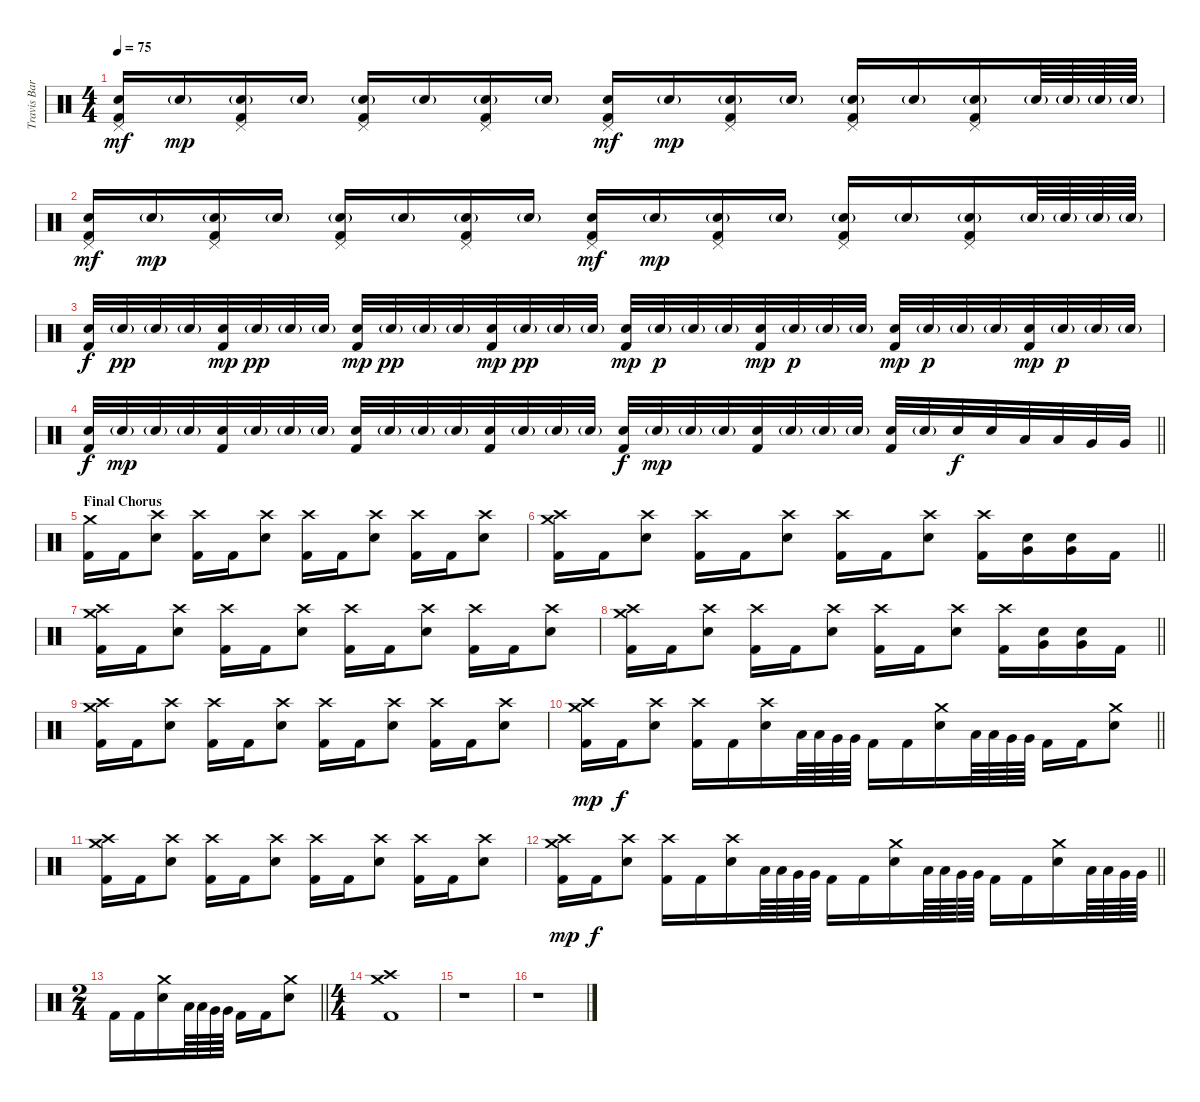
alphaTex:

\track ("Travis Barker" "Travis Bar") {instrument percussion}
\staff {score}
\articulation defaults
\ts (4 4)
\tempo 75
\clef neutral
\ks c
("Pedal Hi-Hat (hit)" "Electric Snare (hit)" "Kick (hit) 2").16{dy mf} "Electric Snare (hit)"{g}.16{dy mp} ("Pedal Hi-Hat (hit)" "Electric Snare (hit)"{g} "Kick (hit) 2").16 "Electric Snare (hit)"{g}.16 ("Pedal Hi-Hat (hit)" "Electric Snare (hit)"{g} "Kick (hit) 2").16 "Electric Snare (hit)"{g}.16 ("Pedal Hi-Hat (hit)" "Electric Snare (hit)"{g} "Kick (hit) 2").16 "Electric Snare (hit)"{g}.16 ("Pedal Hi-Hat (hit)" "Electric Snare (hit)" "Kick (hit) 2").16{dy mf} "Electric Snare (hit)"{g}.16{dy mp} ("Pedal Hi-Hat (hit)" "Electric Snare (hit)"{g} "Kick (hit) 2").16 "Electric Snare (hit)"{g}.16 ("Pedal Hi-Hat (hit)" "Electric Snare (hit)"{g} "Kick (hit) 2").16 "Electric Snare (hit)"{g}.16 ("Pedal Hi-Hat (hit)" "Electric Snare (hit)"{g} "Kick (hit) 2").16 "Electric Snare (hit)"{g}.64 "Electric Snare (hit)"{g}.64 "Electric Snare (hit)"{g}.64 "Electric Snare (hit)"{g}.64 |
("Pedal Hi-Hat (hit)" "Electric Snare (hit)" "Kick (hit) 2").16{dy mf} "Electric Snare (hit)"{g}.16{dy mp} ("Pedal Hi-Hat (hit)" "Electric Snare (hit)"{g} "Kick (hit) 2").16 "Electric Snare (hit)"{g}.16 ("Pedal Hi-Hat (hit)" "Electric Snare (hit)"{g} "Kick (hit) 2").16 "Electric Snare (hit)"{g}.16 ("Pedal Hi-Hat (hit)" "Electric Snare (hit)"{g} "Kick (hit) 2").16 "Electric Snare (hit)"{g}.16 ("Pedal Hi-Hat (hit)" "Electric Snare (hit)" "Kick (hit) 2").16{dy mf} "Electric Snare (hit)"{g}.16{dy mp} ("Pedal Hi-Hat (hit)" "Electric Snare (hit)"{g} "Kick (hit) 2").16 "Electric Snare (hit)"{g}.16 ("Pedal Hi-Hat (hit)" "Electric Snare (hit)"{g} "Kick (hit) 2").16 "Electric Snare (hit)"{g}.16 ("Pedal Hi-Hat (hit)" "Electric Snare (hit)"{g} "Kick (hit) 2").16 "Electric Snare (hit)"{g}.64 "Electric Snare (hit)"{g}.64 "Electric Snare (hit)"{g}.64 "Electric Snare (hit)"{g}.64 |
("Electric Snare (hit)" "Kick (hit) 2").32{dy f} "Electric Snare (hit)"{g}.32{dy pp} "Electric Snare (hit)"{g}.32 "Electric Snare (hit)"{g}.32 ("Electric Snare (hit)" "Kick (hit) 2").32{dy mp} "Electric Snare (hit)"{g}.32{dy pp} "Electric Snare (hit)"{g}.32 "Electric Snare (hit)"{g}.32 ("Electric Snare (hit)" "Kick (hit) 2").32{dy mp} "Electric Snare (hit)"{g}.32{dy pp} "Electric Snare (hit)"{g}.32 "Electric Snare (hit)"{g}.32 ("Electric Snare (hit)" "Kick (hit) 2").32{dy mp} "Electric Snare (hit)"{g}.32{dy pp} "Electric Snare (hit)"{g}.32 "Electric Snare (hit)"{g}.32 ("Electric Snare (hit)" "Kick (hit) 2").32{dy mp} "Electric Snare (hit)"{g}.32{dy p} "Electric Snare (hit)"{g}.32 "Electric Snare (hit)"{g}.32 ("Electric Snare (hit)" "Kick (hit) 2").32{dy mp} "Electric Snare (hit)"{g}.32{dy p} "Electric Snare (hit)"{g}.32 "Electric Snare (hit)"{g}.32 ("Electric Snare (hit)" "Kick (hit) 2").32{dy mp} "Electric Snare (hit)"{g}.32{dy p} "Electric Snare (hit)"{g}.32 "Electric Snare (hit)"{g}.32 ("Electric Snare (hit)" "Kick (hit) 2").32{dy mp} "Electric Snare (hit)"{g}.32{dy p} "Electric Snare (hit)"{g}.32 "Electric Snare (hit)"{g}.32 |
\barLineRight lightlight
("Electric Snare (hit)" "Kick (hit) 2").32{dy f} "Electric Snare (hit)"{g}.32{dy mp} "Electric Snare (hit)"{g}.32 "Electric Snare (hit)"{g}.32 ("Electric Snare (hit)" "Kick (hit) 2").32 "Electric Snare (hit)"{g}.32 "Electric Snare (hit)"{g}.32 "Electric Snare (hit)"{g}.32 ("Electric Snare (hit)" "Kick (hit) 2").32 "Electric Snare (hit)"{g}.32 "Electric Snare (hit)"{g}.32 "Electric Snare (hit)"{g}.32 ("Electric Snare (hit)" "Kick (hit) 2").32 "Electric Snare (hit)"{g}.32 "Electric Snare (hit)"{g}.32 "Electric Snare (hit)"{g}.32 ("Electric Snare (hit)" "Kick (hit) 2").32{dy f} "Electric Snare (hit)"{g}.32{dy mp} "Electric Snare (hit)"{g}.32 "Electric Snare (hit)"{g}.32 ("Electric Snare (hit)" "Kick (hit) 2").32 "Electric Snare (hit)"{g}.32 "Electric Snare (hit)"{g}.32 "Electric Snare (hit)"{g}.32 ("Electric Snare (hit)" "Kick (hit) 2").32 "Electric Snare (hit)"{g}.32 "Electric Snare (hit)".32{dy f} "Electric Snare (hit)".32 "Low Tom (hit)".32 "Low Tom (hit)".32 "Very Low Tom (hit)".32 "Very Low Tom (hit)".32 |
\section ("" "Final Chorus")
("Crash medium (hit)" "Kick (hit) 2").16 "Kick (hit) 2".16 ("Crash high (hit)" "Electric Snare (hit)").8 ("Crash high (hit)" "Kick (hit) 2").16 "Kick (hit) 2".16 ("Crash high (hit)" "Electric Snare (hit)").8 ("Crash high (hit)" "Kick (hit) 2").16 "Kick (hit) 2".16 ("Crash high (hit)" "Electric Snare (hit)").8 ("Crash high (hit)" "Kick (hit) 2").16 "Kick (hit) 2".16 ("Crash high (hit)" "Electric Snare (hit)").8 |
\barLineRight lightlight
("Crash medium (hit)" "Crash high (hit)" "Kick (hit) 2").16 "Kick (hit) 2".16 ("Crash high (hit)" "Electric Snare (hit)").8 ("Crash high (hit)" "Kick (hit) 2").16 "Kick (hit) 2".16 ("Crash high (hit)" "Electric Snare (hit)").8 ("Crash high (hit)" "Kick (hit) 2").16 "Kick (hit) 2".16 ("Crash high (hit)" "Electric Snare (hit)").8 ("Crash high (hit)" "Kick (hit) 2").16 ("Electric Snare (hit)" "Very Low Tom (hit)").16 ("Electric Snare (hit)" "Very Low Tom (hit)").16 "Kick (hit) 2".16 |
("Crash medium (hit)" "Crash high (hit)" "Kick (hit) 2").16 "Kick (hit) 2".16 ("Crash high (hit)" "Electric Snare (hit)").8 ("Crash high (hit)" "Kick (hit) 2").16 "Kick (hit) 2".16 ("Crash high (hit)" "Electric Snare (hit)").8 ("Crash high (hit)" "Kick (hit) 2").16 "Kick (hit) 2".16 ("Crash high (hit)" "Electric Snare (hit)").8 ("Crash high (hit)" "Kick (hit) 2").16 "Kick (hit) 2".16 ("Crash high (hit)" "Electric Snare (hit)").8 |
\barLineRight lightlight
("Crash medium (hit)" "Crash high (hit)" "Kick (hit) 2").16 "Kick (hit) 2".16 ("Crash high (hit)" "Electric Snare (hit)").8 ("Crash high (hit)" "Kick (hit) 2").16 "Kick (hit) 2".16 ("Crash high (hit)" "Electric Snare (hit)").8 ("Crash high (hit)" "Kick (hit) 2").16 "Kick (hit) 2".16 ("Crash high (hit)" "Electric Snare (hit)").8 ("Crash high (hit)" "Kick (hit) 2").16 ("Electric Snare (hit)" "Very Low Tom (hit)").16 ("Electric Snare (hit)" "Very Low Tom (hit)").16 "Kick (hit) 2".16 |
("Crash medium (hit)" "Crash high (hit)" "Kick (hit) 2").16 "Kick (hit) 2".16 ("Crash high (hit)" "Electric Snare (hit)").8 ("Crash high (hit)" "Kick (hit) 2").16 "Kick (hit) 2".16 ("Crash high (hit)" "Electric Snare (hit)").8 ("Crash high (hit)" "Kick (hit) 2").16 "Kick (hit) 2".16 ("Crash high (hit)" "Electric Snare (hit)").8 ("Crash high (hit)" "Kick (hit) 2").16 "Kick (hit) 2".16 ("Crash high (hit)" "Electric Snare (hit)").8 |
\barLineRight lightlight
("Crash medium (hit)" "Crash high (hit)" "Kick (hit) 2").16{dy mp} "Kick (hit) 2".16{dy f} ("Crash high (hit)" "Electric Snare (hit)").8 ("Crash high (hit)" "Kick (hit) 2").16 "Kick (hit) 2".16 ("Crash high (hit)" "Electric Snare (hit)").16 "Low Tom (hit)".64 "Low Tom (hit)".64 "Very Low Tom (hit)".64 "Very Low Tom (hit)".64 "Kick (hit) 2".16 "Kick (hit) 2".16 ("Crash medium (hit)" "Electric Snare (hit)").16 "Low Tom (hit)".64 "Low Tom (hit)".64 "Very Low Tom (hit)".64 "Very Low Tom (hit)".64 "Kick (hit) 2".16 "Kick (hit) 2".16 ("Crash medium (hit)" "Electric Snare (hit)").8 |
("Crash medium (hit)" "Crash high (hit)" "Kick (hit) 2").16 "Kick (hit) 2".16 ("Crash high (hit)" "Electric Snare (hit)").8 ("Crash high (hit)" "Kick (hit) 2").16 "Kick (hit) 2".16 ("Crash high (hit)" "Electric Snare (hit)").8 ("Crash high (hit)" "Kick (hit) 2").16 "Kick (hit) 2".16 ("Crash high (hit)" "Electric Snare (hit)").8 ("Crash high (hit)" "Kick (hit) 2").16 "Kick (hit) 2".16 ("Crash high (hit)" "Electric Snare (hit)").8 |
\barLineRight lightlight
("Crash medium (hit)" "Crash high (hit)" "Kick (hit) 2").16{dy mp} "Kick (hit) 2".16{dy f} ("Crash high (hit)" "Electric Snare (hit)").8 ("Crash high (hit)" "Kick (hit) 2").16 "Kick (hit) 2".16 ("Crash high (hit)" "Electric Snare (hit)").16 "Low Tom (hit)".64 "Low Tom (hit)".64 "Very Low Tom (hit)".64 "Very Low Tom (hit)".64 "Kick (hit) 2".16 "Kick (hit) 2".16 ("Crash medium (hit)" "Electric Snare (hit)").16 "Low Tom (hit)".64 "Low Tom (hit)".64 "Very Low Tom (hit)".64 "Very Low Tom (hit)".64 "Kick (hit) 2".16 "Kick (hit) 2".16 ("Crash medium (hit)" "Electric Snare (hit)").16 "Low Tom (hit)".64 "Low Tom (hit)".64 "Very Low Tom (hit)".64 "Very Low Tom (hit)".64 |
\ts (2 4)
\barLineRight lightlight "Kick (hit) 2".16 "Kick (hit) 2".16
("Crash medium (hit)" "Electric Snare (hit)").16 "Low Tom (hit)".64 "Low Tom (hit)".64 "Very Low Tom (hit)".64 "Very Low Tom (hit)".64 "Kick (hit) 2".16 "Kick (hit) 2".16 ("Crash medium (hit)" "Electric Snare (hit)").8 |
\ts (4 4)
("Crash medium (hit)" "Crash high (hit)" "Kick (hit) 2").1 |
r.1 |
r.1
